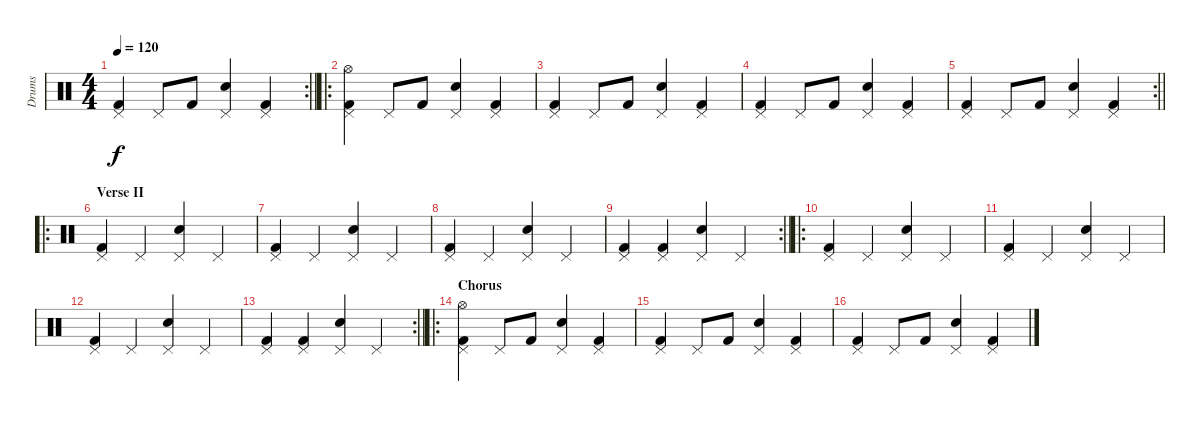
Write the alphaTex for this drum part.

\track ("Drums" "Drums") {instrument percussion}
\staff {score}
\articulation defaults
\rc 2
\ts (4 4)
\tempo 120
\clef neutral
\barLineRight lightlight
\ks c
("Pedal Hi-Hat (hit)" "Kick (hit) 2").4{dy f} "Pedal Hi-Hat (hit)".8 "Kick (hit) 2".8 ("Pedal Hi-Hat (hit)" "Electric Snare (hit)").4 ("Pedal Hi-Hat (hit)" "Kick (hit) 2").4 |
\ro
("Hi-Hat (open)" "Pedal Hi-Hat (hit)" "Kick (hit) 2").4 "Pedal Hi-Hat (hit)".8 "Kick (hit) 2".8 ("Pedal Hi-Hat (hit)" "Electric Snare (hit)").4 ("Pedal Hi-Hat (hit)" "Kick (hit) 2").4 |
("Pedal Hi-Hat (hit)" "Kick (hit) 2").4 "Pedal Hi-Hat (hit)".8 "Kick (hit) 2".8 ("Pedal Hi-Hat (hit)" "Electric Snare (hit)").4 ("Pedal Hi-Hat (hit)" "Kick (hit) 2").4 |
("Pedal Hi-Hat (hit)" "Kick (hit) 2").4 "Pedal Hi-Hat (hit)".8 "Kick (hit) 2".8 ("Pedal Hi-Hat (hit)" "Electric Snare (hit)").4 ("Pedal Hi-Hat (hit)" "Kick (hit) 2").4 |
\rc 2
\barLineRight lightlight
("Pedal Hi-Hat (hit)" "Kick (hit) 2").4 "Pedal Hi-Hat (hit)".8 "Kick (hit) 2".8 ("Pedal Hi-Hat (hit)" "Electric Snare (hit)").4 ("Pedal Hi-Hat (hit)" "Kick (hit) 2").4 |
\ro
\section ("" "Verse II")
("Pedal Hi-Hat (hit)" "Kick (hit) 2").4 "Pedal Hi-Hat (hit)".4 ("Pedal Hi-Hat (hit)" "Electric Snare (hit)").4 "Pedal Hi-Hat (hit)".4 |
("Pedal Hi-Hat (hit)" "Kick (hit) 2").4 "Pedal Hi-Hat (hit)".4 ("Pedal Hi-Hat (hit)" "Electric Snare (hit)").4 "Pedal Hi-Hat (hit)".4 |
("Pedal Hi-Hat (hit)" "Kick (hit) 2").4 "Pedal Hi-Hat (hit)".4 ("Pedal Hi-Hat (hit)" "Electric Snare (hit)").4 "Pedal Hi-Hat (hit)".4 |
\rc 2
\barLineRight lightlight
("Pedal Hi-Hat (hit)" "Kick (hit) 2").4 ("Pedal Hi-Hat (hit)" "Kick (hit) 2").4 ("Pedal Hi-Hat (hit)" "Electric Snare (hit)").4 "Pedal Hi-Hat (hit)".4 |
\ro
\section ("" "")
("Pedal Hi-Hat (hit)" "Kick (hit) 2").4 "Pedal Hi-Hat (hit)".4 ("Pedal Hi-Hat (hit)" "Electric Snare (hit)").4 "Pedal Hi-Hat (hit)".4 |
("Pedal Hi-Hat (hit)" "Kick (hit) 2").4 "Pedal Hi-Hat (hit)".4 ("Pedal Hi-Hat (hit)" "Electric Snare (hit)").4 "Pedal Hi-Hat (hit)".4 |
("Pedal Hi-Hat (hit)" "Kick (hit) 2").4 "Pedal Hi-Hat (hit)".4 ("Pedal Hi-Hat (hit)" "Electric Snare (hit)").4 "Pedal Hi-Hat (hit)".4 |
\rc 2
\barLineRight lightlight
("Pedal Hi-Hat (hit)" "Kick (hit) 2").4 ("Pedal Hi-Hat (hit)" "Kick (hit) 2").4 ("Pedal Hi-Hat (hit)" "Electric Snare (hit)").4 "Pedal Hi-Hat (hit)".4 |
\ro
\section ("" "Chorus")
("Hi-Hat (open)" "Pedal Hi-Hat (hit)" "Kick (hit) 2").4 "Pedal Hi-Hat (hit)".8 "Kick (hit) 2".8 ("Pedal Hi-Hat (hit)" "Electric Snare (hit)").4 ("Pedal Hi-Hat (hit)" "Kick (hit) 2").4 |
("Pedal Hi-Hat (hit)" "Kick (hit) 2").4 "Pedal Hi-Hat (hit)".8 "Kick (hit) 2".8 ("Pedal Hi-Hat (hit)" "Electric Snare (hit)").4 ("Pedal Hi-Hat (hit)" "Kick (hit) 2").4 |
("Pedal Hi-Hat (hit)" "Kick (hit) 2").4 "Pedal Hi-Hat (hit)".8 "Kick (hit) 2".8 ("Pedal Hi-Hat (hit)" "Electric Snare (hit)").4 ("Pedal Hi-Hat (hit)" "Kick (hit) 2").4
